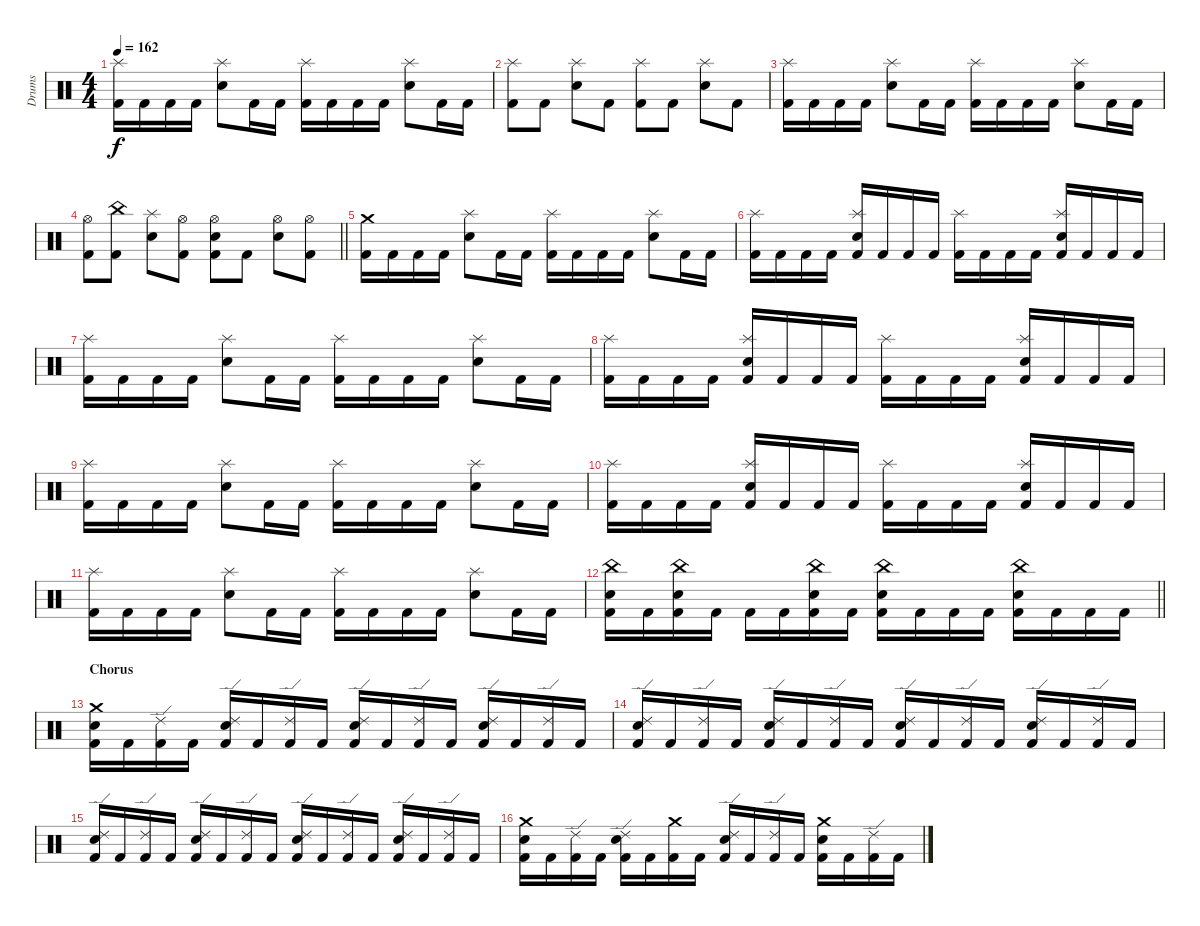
\track ("Drums" "Drums") {instrument percussion}
\staff {score}
\articulation defaults
\ts (4 4)
\tempo 162
\clef neutral
\ks c
("Kick (hit) 2" "Splash (hit)").16{dy f} "Kick (hit) 2".16 "Kick (hit) 2".16 "Kick (hit) 2".16 ("Snare (hit) 2" "Splash (hit)").8 "Kick (hit) 2".16 "Kick (hit) 2".16 ("Kick (hit) 2" "Splash (hit)").16 "Kick (hit) 2".16 "Kick (hit) 2".16 "Kick (hit) 2".16 ("Snare (hit) 2" "Splash (hit)").8 "Kick (hit) 2".16 "Kick (hit) 2".16 |
("Kick (hit) 2" "Splash (hit)").8 "Kick (hit) 2".8 ("Snare (hit) 2" "Splash (hit)").8 "Kick (hit) 2".8 ("Kick (hit) 2" "Splash (hit)").8 "Kick (hit) 2".8 ("Snare (hit) 2" "Splash (hit)").8 "Kick (hit) 2".8 |
("Kick (hit) 2" "Splash (hit)").16 "Kick (hit) 2".16 "Kick (hit) 2".16 "Kick (hit) 2".16 ("Snare (hit) 2" "Splash (hit)").8 "Kick (hit) 2".16 "Kick (hit) 2".16 ("Kick (hit) 2" "Splash (hit)").16 "Kick (hit) 2".16 "Kick (hit) 2".16 "Kick (hit) 2".16 ("Snare (hit) 2" "Splash (hit)").8 "Kick (hit) 2".16 "Kick (hit) 2".16 |
\barLineRight lightlight
("Kick (hit) 2" "Hi-Hat (open)").8 ("Kick (hit) 2" "China (hit)").8 ("Snare (hit) 2" "Splash (hit)").8 ("Kick (hit) 2" "Hi-Hat (open)").8 ("Kick (hit) 2" "Snare (hit) 2" "Hi-Hat (open)").8 "Kick (hit) 2".8 ("Snare (hit) 2" "Hi-Hat (open)").8 ("Kick (hit) 2" "Hi-Hat (open)").8 |
\section ("" "")
("Kick (hit) 2" "Crash medium (hit)").16 "Kick (hit) 2".16 "Kick (hit) 2".16 "Kick (hit) 2".16 ("Snare (hit) 2" "Splash (hit)").8 "Kick (hit) 2".16 "Kick (hit) 2".16 ("Kick (hit) 2" "Splash (hit)").16 "Kick (hit) 2".16 "Kick (hit) 2".16 "Kick (hit) 2".16 ("Snare (hit) 2" "Splash (hit)").8 "Kick (hit) 2".16 "Kick (hit) 2".16 |
("Kick (hit) 2" "Splash (hit)").16 "Kick (hit) 2".16 "Kick (hit) 2".16 "Kick (hit) 2".16 ("Kick (hit) 2" "Snare (hit) 2" "Splash (hit)").16 "Kick (hit) 2".16 "Kick (hit) 2".16 "Kick (hit) 2".16 ("Kick (hit) 2" "Splash (hit)").16 "Kick (hit) 2".16 "Kick (hit) 2".16 "Kick (hit) 2".16 ("Kick (hit) 2" "Snare (hit) 2" "Splash (hit)").16 "Kick (hit) 2".16 "Kick (hit) 2".16 "Kick (hit) 2".16 |
("Kick (hit) 2" "Splash (hit)").16 "Kick (hit) 2".16 "Kick (hit) 2".16 "Kick (hit) 2".16 ("Snare (hit) 2" "Splash (hit)").8 "Kick (hit) 2".16 "Kick (hit) 2".16 ("Kick (hit) 2" "Splash (hit)").16 "Kick (hit) 2".16 "Kick (hit) 2".16 "Kick (hit) 2".16 ("Snare (hit) 2" "Splash (hit)").8 "Kick (hit) 2".16 "Kick (hit) 2".16 |
("Kick (hit) 2" "Splash (hit)").16 "Kick (hit) 2".16 "Kick (hit) 2".16 "Kick (hit) 2".16 ("Kick (hit) 2" "Snare (hit) 2" "Splash (hit)").16 "Kick (hit) 2".16 "Kick (hit) 2".16 "Kick (hit) 2".16 ("Kick (hit) 2" "Splash (hit)").16 "Kick (hit) 2".16 "Kick (hit) 2".16 "Kick (hit) 2".16 ("Kick (hit) 2" "Snare (hit) 2" "Splash (hit)").16 "Kick (hit) 2".16 "Kick (hit) 2".16 "Kick (hit) 2".16 |
("Kick (hit) 2" "Splash (hit)").16 "Kick (hit) 2".16 "Kick (hit) 2".16 "Kick (hit) 2".16 ("Snare (hit) 2" "Splash (hit)").8 "Kick (hit) 2".16 "Kick (hit) 2".16 ("Kick (hit) 2" "Splash (hit)").16 "Kick (hit) 2".16 "Kick (hit) 2".16 "Kick (hit) 2".16 ("Snare (hit) 2" "Splash (hit)").8 "Kick (hit) 2".16 "Kick (hit) 2".16 |
("Kick (hit) 2" "Splash (hit)").16 "Kick (hit) 2".16 "Kick (hit) 2".16 "Kick (hit) 2".16 ("Kick (hit) 2" "Snare (hit) 2" "Splash (hit)").16 "Kick (hit) 2".16 "Kick (hit) 2".16 "Kick (hit) 2".16 ("Kick (hit) 2" "Splash (hit)").16 "Kick (hit) 2".16 "Kick (hit) 2".16 "Kick (hit) 2".16 ("Kick (hit) 2" "Snare (hit) 2" "Splash (hit)").16 "Kick (hit) 2".16 "Kick (hit) 2".16 "Kick (hit) 2".16 |
("Kick (hit) 2" "Splash (hit)").16 "Kick (hit) 2".16 "Kick (hit) 2".16 "Kick (hit) 2".16 ("Snare (hit) 2" "Splash (hit)").8 "Kick (hit) 2".16 "Kick (hit) 2".16 ("Kick (hit) 2" "Splash (hit)").16 "Kick (hit) 2".16 "Kick (hit) 2".16 "Kick (hit) 2".16 ("Snare (hit) 2" "Splash (hit)").8 "Kick (hit) 2".16 "Kick (hit) 2".16 |
\barLineRight lightlight
("Kick (hit) 2" "Snare (hit) 2" "China (hit)").16 "Kick (hit) 2".16 ("Kick (hit) 2" "Snare (hit) 2" "China (hit)").16 "Kick (hit) 2".16 "Kick (hit) 2".16 "Kick (hit) 2".16 ("Kick (hit) 2" "Snare (hit) 2" "China (hit)").16 "Kick (hit) 2".16 ("Kick (hit) 2" "Snare (hit) 2" "China (hit)").16 "Kick (hit) 2".16 "Kick (hit) 2".16 "Kick (hit) 2".16 ("Kick (hit) 2" "Snare (hit) 2" "China (hit)").16 "Kick (hit) 2".16 "Kick (hit) 2".16 "Kick (hit) 2".16 |
\section ("" "Chorus")
("Kick (hit) 2" "Snare (hit) 2" "Crash medium (hit)").16 "Kick (hit) 2".16 ("Kick (hit) 2" "Ride (edge) 2").16 "Kick (hit) 2".16 ("Kick (hit) 2" "Snare (hit) 2" "Ride (edge) 2").16 "Kick (hit) 2".16 ("Kick (hit) 2" "Ride (edge) 2").16 "Kick (hit) 2".16 ("Kick (hit) 2" "Snare (hit) 2" "Ride (edge) 2").16 "Kick (hit) 2".16 ("Kick (hit) 2" "Ride (edge) 2").16 "Kick (hit) 2".16 ("Kick (hit) 2" "Snare (hit) 2" "Ride (edge) 2").16 "Kick (hit) 2".16 ("Kick (hit) 2" "Ride (edge) 2").16 "Kick (hit) 2".16 |
("Kick (hit) 2" "Snare (hit) 2" "Ride (edge) 2").16 "Kick (hit) 2".16 ("Kick (hit) 2" "Ride (edge) 2").16 "Kick (hit) 2".16 ("Kick (hit) 2" "Snare (hit) 2" "Ride (edge) 2").16 "Kick (hit) 2".16 ("Kick (hit) 2" "Ride (edge) 2").16 "Kick (hit) 2".16 ("Kick (hit) 2" "Snare (hit) 2" "Ride (edge) 2").16 "Kick (hit) 2".16 ("Kick (hit) 2" "Ride (edge) 2").16 "Kick (hit) 2".16 ("Kick (hit) 2" "Snare (hit) 2" "Ride (edge) 2").16 "Kick (hit) 2".16 ("Kick (hit) 2" "Ride (edge) 2").16 "Kick (hit) 2".16 |
("Kick (hit) 2" "Snare (hit) 2" "Ride (edge) 2").16 "Kick (hit) 2".16 ("Kick (hit) 2" "Ride (edge) 2").16 "Kick (hit) 2".16 ("Kick (hit) 2" "Snare (hit) 2" "Ride (edge) 2").16 "Kick (hit) 2".16 ("Kick (hit) 2" "Ride (edge) 2").16 "Kick (hit) 2".16 ("Kick (hit) 2" "Snare (hit) 2" "Ride (edge) 2").16 "Kick (hit) 2".16 ("Kick (hit) 2" "Ride (edge) 2").16 "Kick (hit) 2".16 ("Kick (hit) 2" "Snare (hit) 2" "Ride (edge) 2").16 "Kick (hit) 2".16 ("Kick (hit) 2" "Ride (edge) 2").16 "Kick (hit) 2".16 |
("Kick (hit) 2" "Snare (hit) 2" "Crash medium (hit)").16 "Kick (hit) 2".16 ("Kick (hit) 2" "Ride (edge) 2").16 "Kick (hit) 2".16 ("Kick (hit) 2" "Snare (hit) 2" "Ride (edge) 2").16 "Kick (hit) 2".16 ("Kick (hit) 2" "Crash medium (hit)").16 "Kick (hit) 2".16 ("Kick (hit) 2" "Snare (hit) 2" "Ride (edge) 2").16 "Kick (hit) 2".16 ("Kick (hit) 2" "Ride (edge) 2").16 "Kick (hit) 2".16 ("Kick (hit) 2" "Snare (hit) 2" "Crash medium (hit)").16 "Kick (hit) 2".16 ("Kick (hit) 2" "Ride (edge) 2").16 "Kick (hit) 2".16
